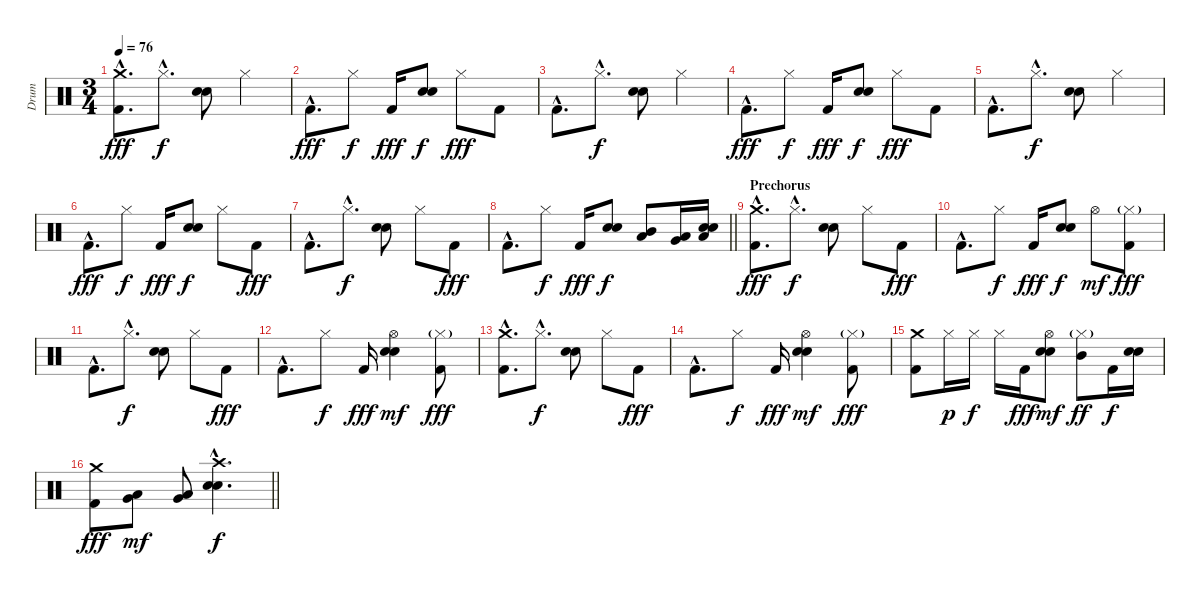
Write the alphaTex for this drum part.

\track ("Drum" "Drum") {instrument percussion}
\staff {score}
\articulation defaults
\ts (3 4)
\tempo 76
\clef neutral
\ks c
("Crash medium (hit)"{hac} "Kick (hit) 2"{hac}).8{d dy fff} "Hi-Hat (closed)"{hac}.8{d dy f} ("Electric Snare (hit)" "Snare (hit) 2").8 "Hi-Hat (closed)".4 |
"Kick (hit) 2"{hac}.8{d dy fff} "Hi-Hat (closed)".8{dy f} "Kick (hit) 2".16{dy fff} ("Electric Snare (hit)" "Snare (hit) 2").8{dy f} "Hi-Hat (closed)".8{dy fff} "Kick (hit) 2".8 |
"Kick (hit) 2"{hac}.8{d} "Hi-Hat (closed)"{hac}.8{d dy f} ("Electric Snare (hit)" "Snare (hit) 2").8 "Hi-Hat (closed)".4 |
"Kick (hit) 2"{hac}.8{d dy fff} "Hi-Hat (closed)".8{dy f} "Kick (hit) 2".16{dy fff} ("Electric Snare (hit)" "Snare (hit) 2").8{dy f} "Hi-Hat (closed)".8{dy fff} "Kick (hit) 2".8 |
"Kick (hit) 2"{hac}.8{d} "Hi-Hat (closed)"{hac}.8{d dy f} ("Electric Snare (hit)" "Snare (hit) 2").8 "Hi-Hat (closed)".4 |
"Kick (hit) 2"{hac}.8{d dy fff} "Hi-Hat (closed)".8{dy f} "Kick (hit) 2".16{dy fff} ("Electric Snare (hit)" "Snare (hit) 2").8{dy f} "Hi-Hat (closed)".8 "Kick (hit) 2".8{dy fff} |
"Kick (hit) 2"{hac}.8{d} "Hi-Hat (closed)"{hac}.8{d dy f} ("Electric Snare (hit)" "Snare (hit) 2").8 "Hi-Hat (closed)".8 "Kick (hit) 2".8{dy fff} |
\barLineRight lightlight "Kick (hit) 2"{hac}.8{d} "Hi-Hat (closed)".8{dy f} "Kick (hit) 2".16{dy fff}
("Electric Snare (hit)" "Snare (hit) 2").8{dy f} ("Low Tom (hit)" "Mid Tom (hit)").8 ("Very Low Tom (hit)" "Low Tom (hit)").16 ("Low Floor Tom (hit)" "Snare (hit) 2" "Electric Snare (hit)").16 |
\section ("" "Prechorus")
("Crash medium (hit)"{hac} "Kick (hit) 2"{hac}).8{d dy fff} "Hi-Hat (closed)"{hac}.8{d dy f} ("Electric Snare (hit)" "Snare (hit) 2").8 "Hi-Hat (closed)".8 "Kick (hit) 2".8{dy fff} |
"Kick (hit) 2"{hac}.8{d} "Hi-Hat (closed)".8{dy f} "Kick (hit) 2".16{dy fff} ("Electric Snare (hit)" "Snare (hit) 2").8{dy f} "Hi-Hat (open)".8{dy mf} ("Hi-Hat (closed)"{g} "Kick (hit) 2").8{dy fff} |
"Kick (hit) 2"{hac}.8{d} "Hi-Hat (closed)"{hac}.8{d dy f} ("Electric Snare (hit)" "Snare (hit) 2").8 "Hi-Hat (closed)".8 "Kick (hit) 2".8{dy fff} |
"Kick (hit) 2"{hac}.8{d} "Hi-Hat (closed)".8{dy f} "Kick (hit) 2".16{dy fff} ("Hi-Hat (open)" "Electric Snare (hit)" "Snare (hit) 2").4{dy mf} ("Hi-Hat (closed)"{g} "Kick (hit) 2").8{dy fff} |
("Crash medium (hit)"{hac} "Kick (hit) 2"{hac}).8{d} "Hi-Hat (closed)"{hac}.8{d dy f} ("Electric Snare (hit)" "Snare (hit) 2").8 "Hi-Hat (closed)".8 "Kick (hit) 2".8{dy fff} |
"Kick (hit) 2"{hac}.8{d} "Hi-Hat (closed)".8{dy f} "Kick (hit) 2".16{dy fff} ("Hi-Hat (open)" "Electric Snare (hit)" "Snare (hit) 2").4{dy mf} ("Hi-Hat (closed)"{g} "Kick (hit) 2").8{dy fff} |
("Crash medium (hit)" "Kick (hit) 2").8 "Hi-Hat (closed)".16{dy p} "Hi-Hat (closed)".16{dy f} "Hi-Hat (closed)".16 "Kick (hit) 2".16{dy fff} ("Hi-Hat (open)" "Electric Snare (hit)" "Snare (hit) 2").8{dy mf} ("Hi-Hat (closed)"{g} "Mid Tom (hit)").8{dy ff} "Kick (hit) 2".16{dy f} ("Electric Snare (hit)" "Snare (hit) 2").16 |
\barLineRight lightlight
("Crash medium (hit)" "Kick (hit) 2").8{dy fff} ("Low Tom (hit)" "Very Low Tom (hit)").8{dy mf} ("Low Floor Tom (hit)" "Very Low Tom (hit)").8 ("Crash high (hit)"{hac} "Electric Snare (hit)"{hac} "Snare (hit) 2"{hac}).4{d dy f}
